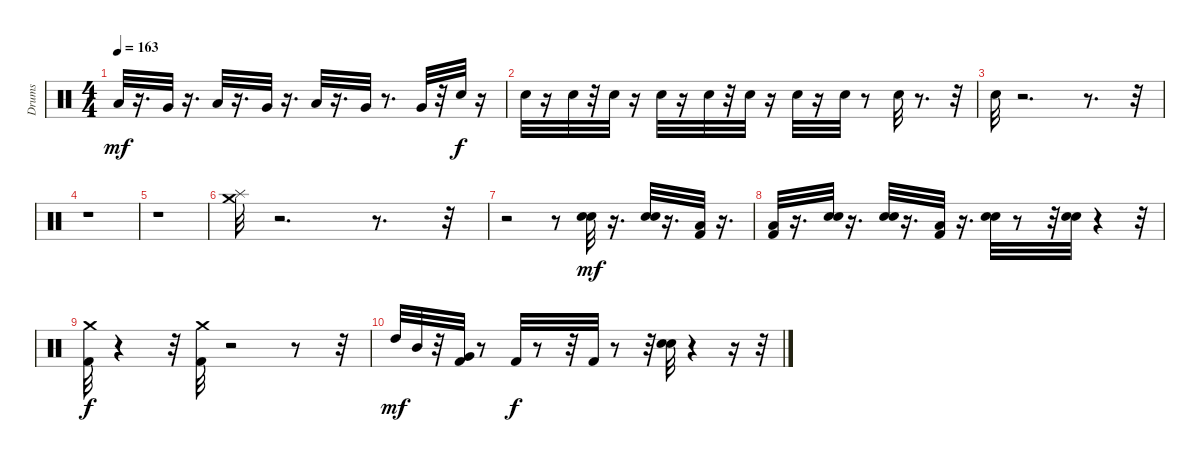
\track ("Drums" "Drums") {instrument percussion}
\staff {score}
\articulation defaults
\ts (4 4)
\tempo 163
\clef neutral
\ks c "Low Floor Tom (hit)".32{dy mf}
r.16{d} "Very Low Tom (hit)".32 r.16{d} "Low Floor Tom (hit)".32 r.16{d} "Very Low Tom (hit)".32 r.16{d} "Low Floor Tom (hit)".32 r.16{d} "Very Low Tom (hit)".32 r.8{d} "Very Low Tom (hit)".32 r.32 "Snare (hit) 2".32{dy f} r.16 |
"Snare (hit) 2".32 r.16 "Snare (hit) 2".32 r.32 "Snare (hit) 2".32 r.16 "Snare (hit) 2".32 r.16 "Snare (hit) 2".32 r.32 "Snare (hit) 2".32 r.16 "Snare (hit) 2".32 r.16 "Snare (hit) 2".32 r.8 "Snare (hit) 2".32 r.8{d} r.32 |
"Snare (hit) 2".32 r.2{d} r.8{d} r.32 |
r.1 |
r.1 |
("Splash (hit)" "Crash medium (hit)").32 r.2{d} r.8{d} r.32 |
r.2 r.8 ("Electric Snare (hit)" "Snare (hit) 2").32{dy mf} r.16{d} ("Electric Snare (hit)" "Snare (hit) 2").32 r.16{d} ("Kick (hit) 2" "Low Floor Tom (hit)").32 r.16{d} |
("Kick (hit) 2" "Low Floor Tom (hit)").32 r.16{d} ("Electric Snare (hit)" "Snare (hit) 2").32 r.16{d} ("Electric Snare (hit)" "Snare (hit) 2").32 r.16{d} ("Kick (hit) 2" "Low Floor Tom (hit)").32 r.16{d} ("Electric Snare (hit)" "Snare (hit) 2").32 r.8 r.32 ("Electric Snare (hit)" "Snare (hit) 2").32 r.4 r.32 |
("Kick (hit) 2" "Crash medium (hit)").32{dy f} r.4 r.32 ("Kick (hit) 2" "Crash medium (hit)").32 r.2 r.8 r.32 |
"High Tom (hit)".32{dy mf} "Mid Tom (hit)".32 r.32 ("Kick (hit) 2" "Very Low Tom (hit)").32 r.8 "Kick (hit) 2".32{dy f} r.8 r.32 "Kick (hit) 2".32 r.8 r.32 ("Electric Snare (hit)" "Snare (hit) 2").32 r.4 r.16 r.32
